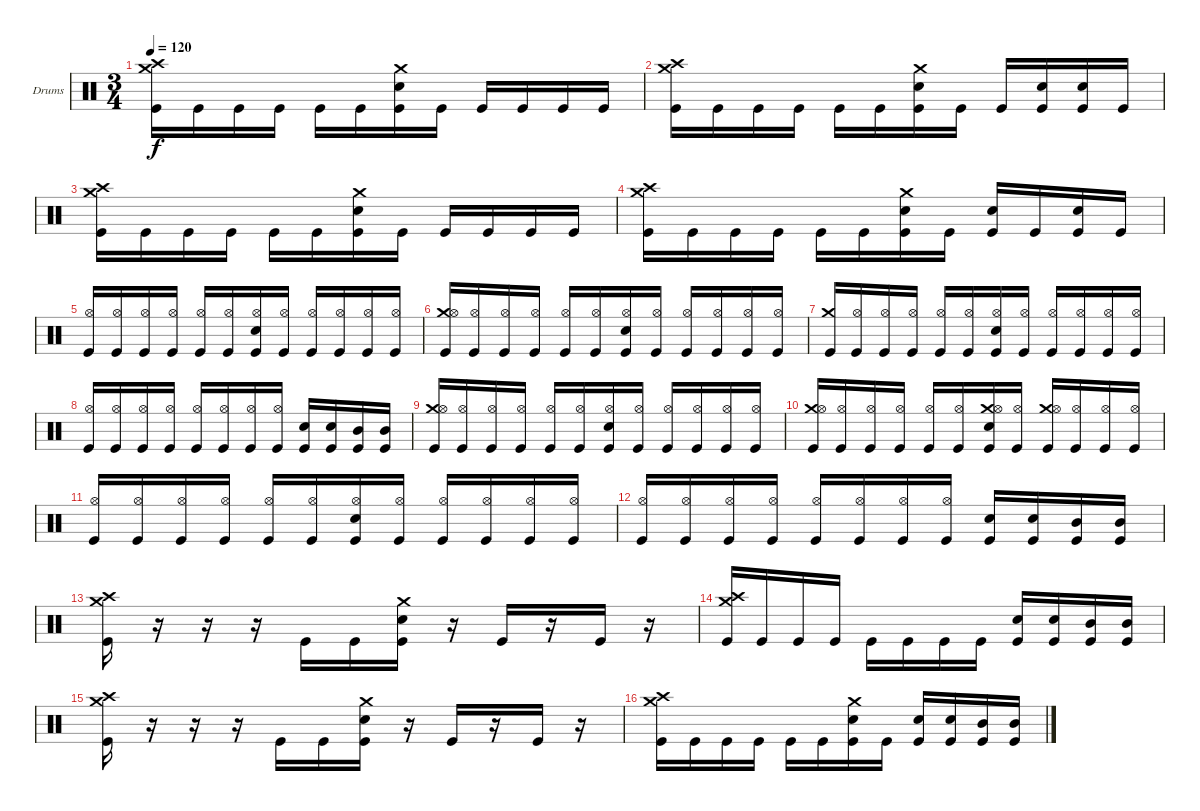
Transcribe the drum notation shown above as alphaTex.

\defaultSystemsLayout 4
\bracketExtendMode groupsimilarinstruments
\firstSystemTrackNameOrientation horizontal
\otherSystemsTrackNameOrientation horizontal
\track ("Drumkit" "Drums") {instrument percussion}
\staff {score}
\articulation defaults
\ts (3 4)
\tempo 120
\clef neutral
\ks c
("Crash medium (hit)" "Crash high (hit)" "Kick (hit)").16{dy f} "Kick (hit)".16 "Kick (hit)".16 "Kick (hit)".16 "Kick (hit)".16 "Kick (hit)".16 ("Kick (hit)" "Snare (hit) 2" "Crash medium (hit)").16 "Kick (hit)".16 "Kick (hit)".16 "Kick (hit)".16 "Kick (hit)".16 "Kick (hit)".16 |
("Crash medium (hit)" "Crash high (hit)" "Kick (hit)").16 "Kick (hit)".16 "Kick (hit)".16 "Kick (hit)".16 "Kick (hit)".16 "Kick (hit)".16 ("Kick (hit)" "Snare (hit) 2" "Crash medium (hit)").16 "Kick (hit)".16 "Kick (hit)".16 ("Kick (hit)" "Snare (hit) 2").16 ("Kick (hit)" "Snare (hit) 2").16 "Kick (hit)".16 |
("Crash medium (hit)" "Crash high (hit)" "Kick (hit)").16 "Kick (hit)".16 "Kick (hit)".16 "Kick (hit)".16 "Kick (hit)".16 "Kick (hit)".16 ("Kick (hit)" "Snare (hit) 2" "Crash medium (hit)").16 "Kick (hit)".16 "Kick (hit)".16 "Kick (hit)".16 "Kick (hit)".16 "Kick (hit)".16 |
("Crash medium (hit)" "Crash high (hit)" "Kick (hit)").16 "Kick (hit)".16 "Kick (hit)".16 "Kick (hit)".16 "Kick (hit)".16 "Kick (hit)".16 ("Kick (hit)" "Snare (hit) 2" "Crash medium (hit)").16 "Kick (hit)".16 ("Kick (hit)" "Snare (hit) 2").16 "Kick (hit)".16 ("Kick (hit)" "Snare (hit) 2").16 "Kick (hit)".16 |
("Kick (hit)" "Hi-Hat (open)").16{beam invert} ("Kick (hit)" "Hi-Hat (open)").16 ("Kick (hit)" "Hi-Hat (open)").16 ("Kick (hit)" "Hi-Hat (open)").16 ("Kick (hit)" "Hi-Hat (open)").16{beam invert} ("Kick (hit)" "Hi-Hat (open)").16 ("Kick (hit)" "Snare (hit) 2" "Hi-Hat (open)").16 ("Kick (hit)" "Hi-Hat (open)").16 ("Kick (hit)" "Hi-Hat (open)").16{beam invert} ("Kick (hit)" "Hi-Hat (open)").16 ("Kick (hit)" "Hi-Hat (open)").16 ("Kick (hit)" "Hi-Hat (open)").16 |
("Kick (hit)" "Crash medium (hit)" "Hi-Hat (open)").16{beam invert} ("Kick (hit)" "Hi-Hat (open)").16 ("Kick (hit)" "Hi-Hat (open)").16 ("Kick (hit)" "Hi-Hat (open)").16 ("Kick (hit)" "Hi-Hat (open)").16{beam invert} ("Kick (hit)" "Hi-Hat (open)").16 ("Kick (hit)" "Snare (hit) 2" "Hi-Hat (open)").16 ("Kick (hit)" "Hi-Hat (open)").16 ("Kick (hit)" "Hi-Hat (open)").16{beam invert} ("Kick (hit)" "Hi-Hat (open)").16 ("Kick (hit)" "Hi-Hat (open)").16 ("Kick (hit)" "Hi-Hat (open)").16 |
("Kick (hit)" "Crash medium (hit)").16{beam invert} ("Kick (hit)" "Hi-Hat (open)").16 ("Kick (hit)" "Hi-Hat (open)").16 ("Kick (hit)" "Hi-Hat (open)").16 ("Kick (hit)" "Hi-Hat (open)").16{beam invert} ("Kick (hit)" "Hi-Hat (open)").16 ("Kick (hit)" "Snare (hit) 2" "Hi-Hat (open)").16 ("Kick (hit)" "Hi-Hat (open)").16 ("Kick (hit)" "Hi-Hat (open)").16{beam invert} ("Kick (hit)" "Hi-Hat (open)").16 ("Kick (hit)" "Hi-Hat (open)").16 ("Kick (hit)" "Hi-Hat (open)").16 |
("Kick (hit)" "Hi-Hat (open)").16{beam invert} ("Kick (hit)" "Hi-Hat (open)").16 ("Kick (hit)" "Hi-Hat (open)").16 ("Kick (hit)" "Hi-Hat (open)").16 ("Kick (hit)" "Hi-Hat (open)").16{beam invert} ("Kick (hit)" "Hi-Hat (open)").16 ("Kick (hit)" "Hi-Hat (open)").16 ("Kick (hit)" "Hi-Hat (open)").16 ("Kick (hit)" "Snare (hit) 2").16 ("Kick (hit)" "Snare (hit) 2").16 ("Kick (hit)" "Mid Tom (hit)").16 ("Kick (hit)" "Mid Tom (hit)").16 |
("Kick (hit)" "Crash medium (hit)" "Hi-Hat (open)").16{beam invert} ("Kick (hit)" "Hi-Hat (open)").16 ("Kick (hit)" "Hi-Hat (open)").16 ("Kick (hit)" "Hi-Hat (open)").16 ("Kick (hit)" "Hi-Hat (open)").16{beam invert} ("Kick (hit)" "Hi-Hat (open)").16 ("Kick (hit)" "Snare (hit) 2" "Hi-Hat (open)").16 ("Kick (hit)" "Hi-Hat (open)").16 ("Kick (hit)" "Hi-Hat (open)").16{beam invert} ("Kick (hit)" "Hi-Hat (open)").16 ("Kick (hit)" "Hi-Hat (open)").16 ("Kick (hit)" "Hi-Hat (open)").16 |
("Kick (hit)" "Crash medium (hit)" "Hi-Hat (open)").16{beam invert} ("Kick (hit)" "Hi-Hat (open)").16 ("Kick (hit)" "Hi-Hat (open)").16 ("Kick (hit)" "Hi-Hat (open)").16 ("Kick (hit)" "Hi-Hat (open)").16{beam invert} ("Kick (hit)" "Hi-Hat (open)").16 ("Kick (hit)" "Snare (hit) 2" "Crash medium (hit)" "Hi-Hat (open)").16 ("Kick (hit)" "Hi-Hat (open)").16 ("Kick (hit)" "Crash medium (hit)" "Hi-Hat (open)").16{beam invert} ("Kick (hit)" "Hi-Hat (open)").16 ("Kick (hit)" "Hi-Hat (open)").16 ("Kick (hit)" "Hi-Hat (open)").16 |
("Kick (hit)" "Hi-Hat (open)").16{beam invert} ("Kick (hit)" "Hi-Hat (open)").16 ("Kick (hit)" "Hi-Hat (open)").16 ("Kick (hit)" "Hi-Hat (open)").16 ("Kick (hit)" "Hi-Hat (open)").16{beam invert} ("Kick (hit)" "Hi-Hat (open)").16 ("Kick (hit)" "Snare (hit) 2" "Hi-Hat (open)").16 ("Kick (hit)" "Hi-Hat (open)").16 ("Kick (hit)" "Hi-Hat (open)").16{beam invert} ("Kick (hit)" "Hi-Hat (open)").16 ("Kick (hit)" "Hi-Hat (open)").16 ("Kick (hit)" "Hi-Hat (open)").16 |
("Kick (hit)" "Hi-Hat (open)").16{beam invert} ("Kick (hit)" "Hi-Hat (open)").16 ("Kick (hit)" "Hi-Hat (open)").16 ("Kick (hit)" "Hi-Hat (open)").16 ("Kick (hit)" "Hi-Hat (open)").16{beam invert} ("Kick (hit)" "Hi-Hat (open)").16 ("Kick (hit)" "Hi-Hat (open)").16 ("Kick (hit)" "Hi-Hat (open)").16 ("Kick (hit)" "Snare (hit) 2").16 ("Kick (hit)" "Snare (hit) 2").16 ("Kick (hit)" "Mid Tom (hit)").16 ("Kick (hit)" "Mid Tom (hit)").16 |
("Crash medium (hit)" "Crash high (hit)" "Kick (hit)").16 r.16 r.16 r.16 "Kick (hit)".16 "Kick (hit)".16 ("Kick (hit)" "Snare (hit) 2" "Crash medium (hit)").16 r.16 "Kick (hit)".16 r.16 "Kick (hit)".16 r.16 |
("Kick (hit)" "Crash medium (hit)" "Crash high (hit)").16 "Kick (hit)".16 "Kick (hit)".16 "Kick (hit)".16 "Kick (hit)".16{beam invert} "Kick (hit)".16 "Kick (hit)".16 "Kick (hit)".16 ("Kick (hit)" "Snare (hit) 2").16 ("Kick (hit)" "Snare (hit) 2").16 ("Kick (hit)" "Mid Tom (hit)").16 ("Kick (hit)" "Mid Tom (hit)").16 |
("Kick (hit)" "Crash medium (hit)" "Crash high (hit)").16 r.16 r.16 r.16 "Kick (hit)".16 "Kick (hit)".16 ("Kick (hit)" "Snare (hit) 2" "Crash medium (hit)").16 r.16 "Kick (hit)".16 r.16 "Kick (hit)".16 r.16 |
("Kick (hit)" "Crash medium (hit)" "Crash high (hit)").16 "Kick (hit)".16 "Kick (hit)".16 "Kick (hit)".16 "Kick (hit)".16 "Kick (hit)".16 ("Kick (hit)" "Crash medium (hit)" "Snare (hit) 2").16 "Kick (hit)".16 ("Kick (hit)" "Snare (hit) 2").16 ("Kick (hit)" "Snare (hit) 2").16 ("Kick (hit)" "Mid Tom (hit)").16 ("Kick (hit)" "Mid Tom (hit)").16
